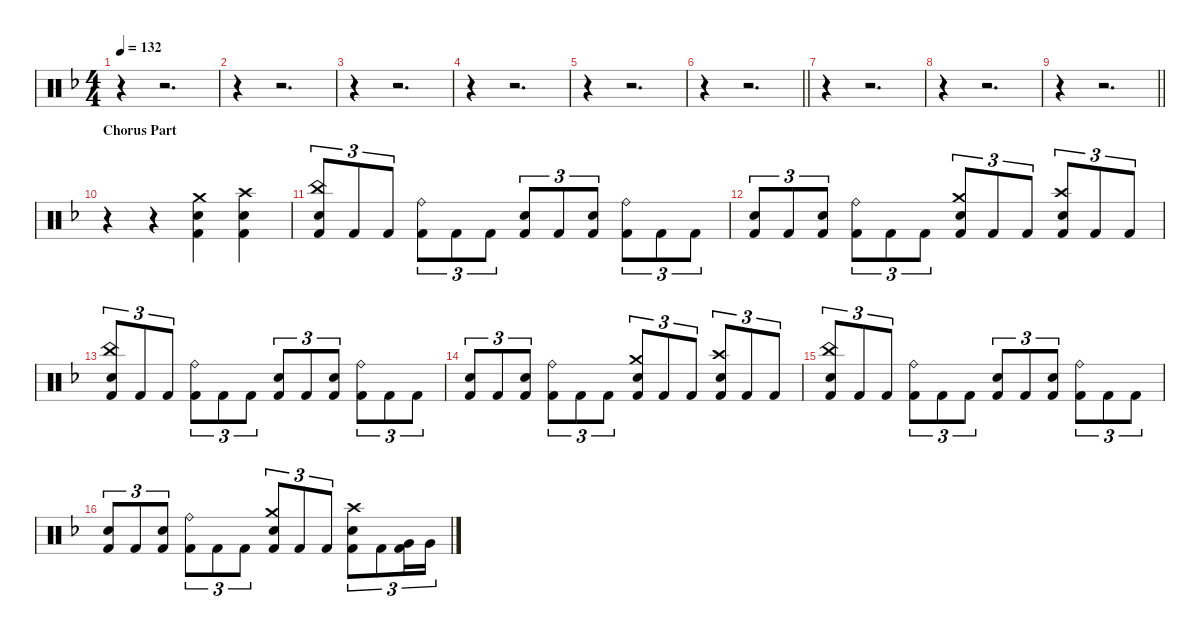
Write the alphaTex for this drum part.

\defaultSystemsLayout 4
\hideDynamics
\bracketExtendMode nobrackets
\singleTrackTrackNamePolicy hidden
\multiTrackTrackNamePolicy hidden
\firstSystemTrackNameMode fullname
\firstSystemTrackNameOrientation horizontal
\otherSystemsTrackNameOrientation horizontal
\track ("Drums" "drm.") {instrument percussion}
\staff {score}
\articulation defaults
\ts (4 4)
\tempo 132
\clef neutral
\ks dminor
r.4{dy f beam Down} r.2{d beam Down} |
r.4{beam Down} r.2{d beam Down} |
r.4{beam Down} r.2{d beam Down} |
r.4{beam Down} r.2{d beam Down} |
r.4{beam Down} r.2{d beam Down} |
\barLineRight lightlight
r.4{beam Down} r.2{d beam Down} |
r.4{beam Down} r.2{d beam Down} |
r.4{beam Down} r.2{d beam Down} |
\barLineRight lightlight
r.4{beam Down} r.2{d beam Down} |
\section ("" "Chorus Part")
r.4{beam Down} r.4{beam Down} ("Crash medium (hit)"{acc forcenatural} "Snare (hit) 2"{acc forcenatural} "Kick (hit) 2"{acc forcenatural}).4{beam Down} ("Crash high (hit)"{acc forcenatural} "Snare (hit) 2"{acc forcenatural} "Kick (hit) 2"{acc forcenatural}).4{beam Down} |
("China (hit)"{acc forcenatural} "Snare (hit) 2"{acc forcenatural} "Kick (hit) 2"{acc forcenatural}).8{tu (3 2) beam Up} "Kick (hit) 2"{acc forcenatural}.8{tu (3 2) beam Up} "Kick (hit) 2"{acc forcenatural}.8{tu (3 2) beam Up} ("Ride (bell)"{acc forcenatural} "Kick (hit) 2"{acc forcenatural}).8{tu (3 2) beam Down} "Kick (hit) 2"{acc forcenatural}.8{tu (3 2) beam Down} "Kick (hit) 2"{acc forcenatural}.8{tu (3 2) beam Down} ("Snare (hit) 2"{acc forcenatural} "Kick (hit) 2"{acc forcenatural}).8{tu (3 2) beam Up} "Kick (hit) 2"{acc forcenatural}.8{tu (3 2) beam Up} ("Snare (hit) 2"{acc forcenatural} "Kick (hit) 2"{acc forcenatural}).8{tu (3 2) beam Up} ("Ride (bell)"{acc forcenatural} "Kick (hit) 2"{acc forcenatural}).8{tu (3 2) beam Down} "Kick (hit) 2"{acc forcenatural}.8{tu (3 2) beam Down} "Kick (hit) 2"{acc forcenatural}.8{tu (3 2) beam Down} |
("Snare (hit) 2"{acc forcenatural} "Kick (hit) 2"{acc forcenatural}).8{tu (3 2) beam Up} "Kick (hit) 2"{acc forcenatural}.8{tu (3 2) beam Up} ("Snare (hit) 2"{acc forcenatural} "Kick (hit) 2"{acc forcenatural}).8{tu (3 2) beam Up} ("Ride (bell)"{acc forcenatural} "Kick (hit) 2"{acc forcenatural}).8{tu (3 2) beam Down} "Kick (hit) 2"{acc forcenatural}.8{tu (3 2) beam Down} "Kick (hit) 2"{acc forcenatural}.8{tu (3 2) beam Down} ("Crash medium (hit)"{acc forcenatural} "Snare (hit) 2"{acc forcenatural} "Kick (hit) 2"{acc forcenatural}).8{tu (3 2) beam Up} "Kick (hit) 2"{acc forcenatural}.8{tu (3 2) beam Up} "Kick (hit) 2"{acc forcenatural}.8{tu (3 2) beam Up} ("Crash high (hit)"{acc forcenatural} "Snare (hit) 2"{acc forcenatural} "Kick (hit) 2"{acc forcenatural}).8{tu (3 2) beam Up} "Kick (hit) 2"{acc forcenatural}.8{tu (3 2) beam Up} "Kick (hit) 2"{acc forcenatural}.8{tu (3 2) beam Up} |
("China (hit)"{acc forcenatural} "Snare (hit) 2"{acc forcenatural} "Kick (hit) 2"{acc forcenatural}).8{tu (3 2) beam Up} "Kick (hit) 2"{acc forcenatural}.8{tu (3 2) beam Up} "Kick (hit) 2"{acc forcenatural}.8{tu (3 2) beam Up} ("Ride (bell)"{acc forcenatural} "Kick (hit) 2"{acc forcenatural}).8{tu (3 2) beam Down} "Kick (hit) 2"{acc forcenatural}.8{tu (3 2) beam Down} "Kick (hit) 2"{acc forcenatural}.8{tu (3 2) beam Down} ("Snare (hit) 2"{acc forcenatural} "Kick (hit) 2"{acc forcenatural}).8{tu (3 2) beam Up} "Kick (hit) 2"{acc forcenatural}.8{tu (3 2) beam Up} ("Snare (hit) 2"{acc forcenatural} "Kick (hit) 2"{acc forcenatural}).8{tu (3 2) beam Up} ("Ride (bell)"{acc forcenatural} "Kick (hit) 2"{acc forcenatural}).8{tu (3 2) beam Down} "Kick (hit) 2"{acc forcenatural}.8{tu (3 2) beam Down} "Kick (hit) 2"{acc forcenatural}.8{tu (3 2) beam Down} |
("Snare (hit) 2"{acc forcenatural} "Kick (hit) 2"{acc forcenatural}).8{tu (3 2) beam Up} "Kick (hit) 2"{acc forcenatural}.8{tu (3 2) beam Up} ("Snare (hit) 2"{acc forcenatural} "Kick (hit) 2"{acc forcenatural}).8{tu (3 2) beam Up} ("Ride (bell)"{acc forcenatural} "Kick (hit) 2"{acc forcenatural}).8{tu (3 2) beam Down} "Kick (hit) 2"{acc forcenatural}.8{tu (3 2) beam Down} "Kick (hit) 2"{acc forcenatural}.8{tu (3 2) beam Down} ("Crash medium (hit)"{acc forcenatural} "Snare (hit) 2"{acc forcenatural} "Kick (hit) 2"{acc forcenatural}).8{tu (3 2) beam Up} "Kick (hit) 2"{acc forcenatural}.8{tu (3 2) beam Up} "Kick (hit) 2"{acc forcenatural}.8{tu (3 2) beam Up} ("Crash high (hit)"{acc forcenatural} "Snare (hit) 2"{acc forcenatural} "Kick (hit) 2"{acc forcenatural}).8{tu (3 2) beam Up} "Kick (hit) 2"{acc forcenatural}.8{tu (3 2) beam Up} "Kick (hit) 2"{acc forcenatural}.8{tu (3 2) beam Up} |
("China (hit)"{acc forcenatural} "Snare (hit) 2"{acc forcenatural} "Kick (hit) 2"{acc forcenatural}).8{tu (3 2) beam Up} "Kick (hit) 2"{acc forcenatural}.8{tu (3 2) beam Up} "Kick (hit) 2"{acc forcenatural}.8{tu (3 2) beam Up} ("Ride (bell)"{acc forcenatural} "Kick (hit) 2"{acc forcenatural}).8{tu (3 2) beam Down} "Kick (hit) 2"{acc forcenatural}.8{tu (3 2) beam Down} "Kick (hit) 2"{acc forcenatural}.8{tu (3 2) beam Down} ("Snare (hit) 2"{acc forcenatural} "Kick (hit) 2"{acc forcenatural}).8{tu (3 2) beam Up} "Kick (hit) 2"{acc forcenatural}.8{tu (3 2) beam Up} ("Snare (hit) 2"{acc forcenatural} "Kick (hit) 2"{acc forcenatural}).8{tu (3 2) beam Up} ("Ride (bell)"{acc forcenatural} "Kick (hit) 2"{acc forcenatural}).8{tu (3 2) beam Down} "Kick (hit) 2"{acc forcenatural}.8{tu (3 2) beam Down} "Kick (hit) 2"{acc forcenatural}.8{tu (3 2) beam Down} |
("Snare (hit) 2"{acc forcenatural} "Kick (hit) 2"{acc forcenatural}).8{tu (3 2) beam Up} "Kick (hit) 2"{acc forcenatural}.8{tu (3 2) beam Up} ("Snare (hit) 2"{acc forcenatural} "Kick (hit) 2"{acc forcenatural}).8{tu (3 2) beam Up} ("Ride (bell)"{acc forcenatural} "Kick (hit) 2"{acc forcenatural}).8{tu (3 2) beam Down} "Kick (hit) 2"{acc forcenatural}.8{tu (3 2) beam Down} "Kick (hit) 2"{acc forcenatural}.8{tu (3 2) beam Down} ("Crash medium (hit)"{acc forcenatural} "Snare (hit) 2"{acc forcenatural} "Kick (hit) 2"{acc forcenatural}).8{tu (3 2) beam Up} "Kick (hit) 2"{acc forcenatural}.8{tu (3 2) beam Up} "Kick (hit) 2"{acc forcenatural}.8{tu (3 2) beam Up} ("Crash high (hit)"{acc forcenatural} "Snare (hit) 2"{acc forcenatural} "Kick (hit) 2"{acc forcenatural}).8{tu (3 2) beam Down} "Kick (hit) 2"{acc forcenatural}.8{tu (3 2) beam Down} ("Very Low Tom (hit)"{acc forcenatural} "Kick (hit) 2"{acc forcenatural}).16{tu (3 2) beam Down} "Very Low Tom (hit)"{acc forcenatural}.16{tu (3 2) beam Down}
